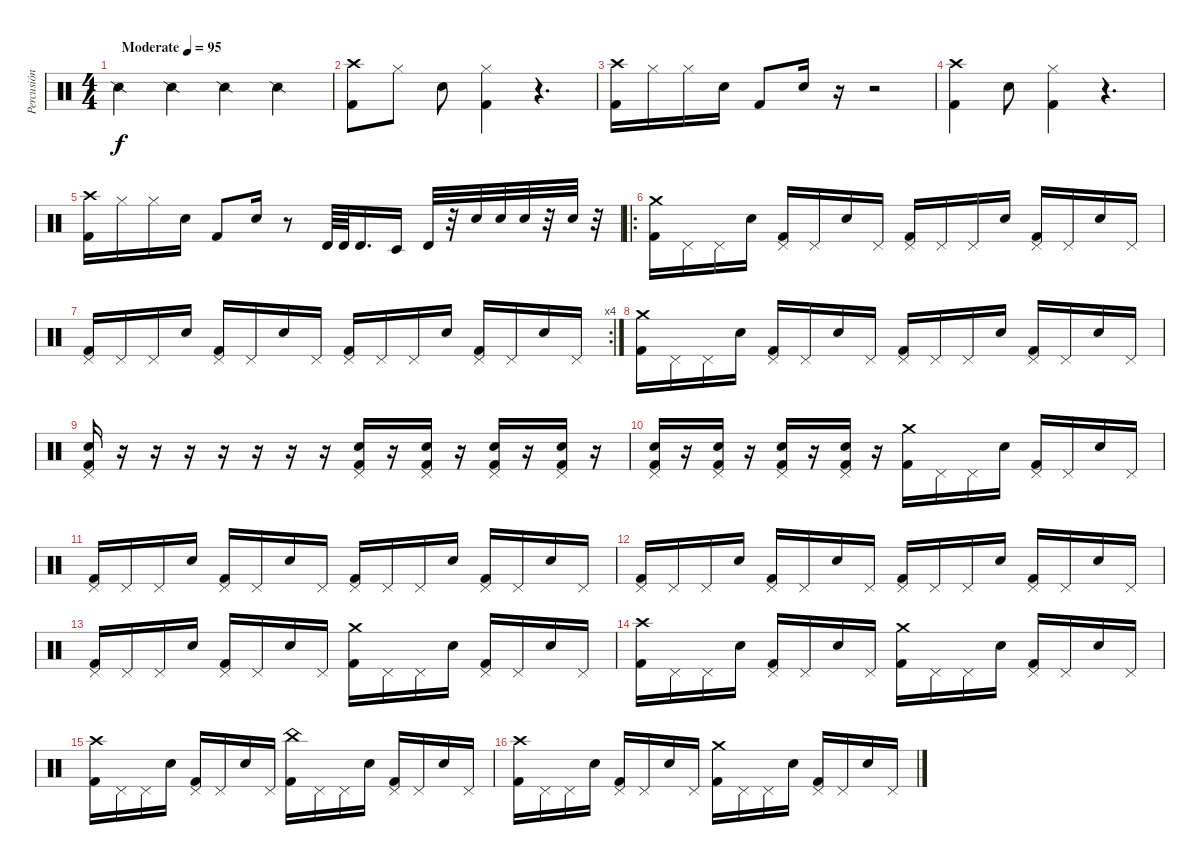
\track ("Percusión" "Percusión") {instrument percussion}
\staff {score}
\articulation defaults
\ts (4 4)
\tempo (95 "Moderate")
\clef neutral
\ks c "Snare (side stick) 2".4{dy f} "Snare (side stick) 2".4 "Snare (side stick) 2".4 "Snare (side stick) 2".4
|
("Crash high (hit)" "Kick (hit) 2").8 "Hi-Hat (closed)".8 "Electric Snare (hit)".8 ("Hi-Hat (closed)" "Kick (hit) 2").4 r.4{d} |
("Crash high (hit)" "Kick (hit) 2").16 "Hi-Hat (closed)".16 "Hi-Hat (closed)".16 "Electric Snare (hit)".16 "Kick (hit) 2".8 "Electric Snare (hit)".16 r.16 r.2 |
("Crash high (hit)" "Kick (hit) 2").4 "Electric Snare (hit)".8 ("Hi-Hat (closed)" "Kick (hit) 2").4 r.4{d} |
("Crash high (hit)" "Kick (hit) 2").16 "Hi-Hat (closed)".16 "Hi-Hat (closed)".16 "Electric Snare (hit)".16 "Kick (hit) 2".8 "Electric Snare (hit)".16 r.8 "Timbale high (hit)".64 "Timbale high (hit)".64 "Timbale high (hit)".16{d} "Timbale low (hit)".16 "Timbale high (hit)".32 r.32 "Electric Snare (hit)".32 "Electric Snare (hit)".32 "Electric Snare (hit)".32 r.32 "Electric Snare (hit)".32 r.32 |
\ro
("Crash medium (hit)" "Kick (hit) 2").16 "Pedal Hi-Hat (hit)".16 "Pedal Hi-Hat (hit)".16 "Electric Snare (hit)".16 ("Pedal Hi-Hat (hit)" "Kick (hit) 2").16 "Pedal Hi-Hat (hit)".16 "Electric Snare (hit)".16 "Pedal Hi-Hat (hit)".16 ("Pedal Hi-Hat (hit)" "Kick (hit) 2").16 "Pedal Hi-Hat (hit)".16 "Pedal Hi-Hat (hit)".16 "Electric Snare (hit)".16 ("Pedal Hi-Hat (hit)" "Kick (hit) 2").16 "Pedal Hi-Hat (hit)".16 "Electric Snare (hit)".16 "Pedal Hi-Hat (hit)".16 |
\rc 4
("Pedal Hi-Hat (hit)" "Kick (hit) 2").16 "Pedal Hi-Hat (hit)".16 "Pedal Hi-Hat (hit)".16 "Electric Snare (hit)".16 ("Pedal Hi-Hat (hit)" "Kick (hit) 2").16 "Pedal Hi-Hat (hit)".16 "Electric Snare (hit)".16 "Pedal Hi-Hat (hit)".16 ("Pedal Hi-Hat (hit)" "Kick (hit) 2").16 "Pedal Hi-Hat (hit)".16 "Pedal Hi-Hat (hit)".16 "Electric Snare (hit)".16 ("Pedal Hi-Hat (hit)" "Kick (hit) 2").16 "Pedal Hi-Hat (hit)".16 "Electric Snare (hit)".16 "Pedal Hi-Hat (hit)".16 |
("Crash medium (hit)" "Kick (hit) 2").16 "Pedal Hi-Hat (hit)".16 "Pedal Hi-Hat (hit)".16 "Electric Snare (hit)".16 ("Pedal Hi-Hat (hit)" "Kick (hit) 2").16 "Pedal Hi-Hat (hit)".16 "Electric Snare (hit)".16 "Pedal Hi-Hat (hit)".16 ("Pedal Hi-Hat (hit)" "Kick (hit) 2").16 "Pedal Hi-Hat (hit)".16 "Pedal Hi-Hat (hit)".16 "Electric Snare (hit)".16 ("Pedal Hi-Hat (hit)" "Kick (hit) 2").16 "Pedal Hi-Hat (hit)".16 "Electric Snare (hit)".16 "Pedal Hi-Hat (hit)".16 |
("Pedal Hi-Hat (hit)" "Electric Snare (hit)" "Kick (hit) 2").16 r.16 r.16 r.16 r.16 r.16 r.16 r.16 ("Pedal Hi-Hat (hit)" "Electric Snare (hit)" "Kick (hit) 2").16 r.16 ("Pedal Hi-Hat (hit)" "Electric Snare (hit)" "Kick (hit) 2").16 r.16 ("Pedal Hi-Hat (hit)" "Electric Snare (hit)" "Kick (hit) 2").16 r.16 ("Pedal Hi-Hat (hit)" "Electric Snare (hit)" "Kick (hit) 2").16 r.16 |
("Pedal Hi-Hat (hit)" "Electric Snare (hit)" "Kick (hit) 2").16 r.16 ("Pedal Hi-Hat (hit)" "Electric Snare (hit)" "Kick (hit) 2").16 r.16 ("Pedal Hi-Hat (hit)" "Electric Snare (hit)" "Kick (hit) 2").16 r.16 ("Pedal Hi-Hat (hit)" "Electric Snare (hit)" "Kick (hit) 2").16 r.16 ("Crash medium (hit)" "Kick (hit) 2").16 "Pedal Hi-Hat (hit)".16 "Pedal Hi-Hat (hit)".16 "Electric Snare (hit)".16 ("Pedal Hi-Hat (hit)" "Kick (hit) 2").16 "Pedal Hi-Hat (hit)".16 "Electric Snare (hit)".16 "Pedal Hi-Hat (hit)".16 |
("Pedal Hi-Hat (hit)" "Kick (hit) 2").16 "Pedal Hi-Hat (hit)".16 "Pedal Hi-Hat (hit)".16 "Electric Snare (hit)".16 ("Pedal Hi-Hat (hit)" "Kick (hit) 2").16 "Pedal Hi-Hat (hit)".16 "Electric Snare (hit)".16 "Pedal Hi-Hat (hit)".16 ("Pedal Hi-Hat (hit)" "Kick (hit) 2").16 "Pedal Hi-Hat (hit)".16 "Pedal Hi-Hat (hit)".16 "Electric Snare (hit)".16 ("Pedal Hi-Hat (hit)" "Kick (hit) 2").16 "Pedal Hi-Hat (hit)".16 "Electric Snare (hit)".16 "Pedal Hi-Hat (hit)".16 |
("Pedal Hi-Hat (hit)" "Kick (hit) 2").16 "Pedal Hi-Hat (hit)".16 "Pedal Hi-Hat (hit)".16 "Electric Snare (hit)".16 ("Pedal Hi-Hat (hit)" "Kick (hit) 2").16 "Pedal Hi-Hat (hit)".16 "Electric Snare (hit)".16 "Pedal Hi-Hat (hit)".16 ("Pedal Hi-Hat (hit)" "Kick (hit) 2").16 "Pedal Hi-Hat (hit)".16 "Pedal Hi-Hat (hit)".16 "Electric Snare (hit)".16 ("Pedal Hi-Hat (hit)" "Kick (hit) 2").16 "Pedal Hi-Hat (hit)".16 "Electric Snare (hit)".16 "Pedal Hi-Hat (hit)".16 |
("Pedal Hi-Hat (hit)" "Kick (hit) 2").16 "Pedal Hi-Hat (hit)".16 "Pedal Hi-Hat (hit)".16 "Electric Snare (hit)".16 ("Pedal Hi-Hat (hit)" "Kick (hit) 2").16 "Pedal Hi-Hat (hit)".16 "Electric Snare (hit)".16 "Pedal Hi-Hat (hit)".16 ("Crash medium (hit)" "Kick (hit) 2").16 "Pedal Hi-Hat (hit)".16 "Pedal Hi-Hat (hit)".16 "Electric Snare (hit)".16 ("Pedal Hi-Hat (hit)" "Kick (hit) 2").16 "Pedal Hi-Hat (hit)".16 "Electric Snare (hit)".16 "Pedal Hi-Hat (hit)".16 |
("Crash high (hit)" "Kick (hit) 2").16 "Pedal Hi-Hat (hit)".16 "Pedal Hi-Hat (hit)".16 "Electric Snare (hit)".16 ("Pedal Hi-Hat (hit)" "Kick (hit) 2").16 "Pedal Hi-Hat (hit)".16 "Electric Snare (hit)".16 "Pedal Hi-Hat (hit)".16 ("Crash medium (hit)" "Kick (hit) 2").16 "Pedal Hi-Hat (hit)".16 "Pedal Hi-Hat (hit)".16 "Electric Snare (hit)".16 ("Pedal Hi-Hat (hit)" "Kick (hit) 2").16 "Pedal Hi-Hat (hit)".16 "Electric Snare (hit)".16 "Pedal Hi-Hat (hit)".16 |
("Crash high (hit)" "Kick (hit) 2").16 "Pedal Hi-Hat (hit)".16 "Pedal Hi-Hat (hit)".16 "Electric Snare (hit)".16 ("Pedal Hi-Hat (hit)" "Kick (hit) 2").16 "Pedal Hi-Hat (hit)".16 "Electric Snare (hit)".16 "Pedal Hi-Hat (hit)".16 ("China (hit)" "Kick (hit) 2").16 "Pedal Hi-Hat (hit)".16 "Pedal Hi-Hat (hit)".16 "Electric Snare (hit)".16 ("Pedal Hi-Hat (hit)" "Kick (hit) 2").16 "Pedal Hi-Hat (hit)".16 "Electric Snare (hit)".16 "Pedal Hi-Hat (hit)".16 |
("Crash high (hit)" "Kick (hit) 2").16 "Pedal Hi-Hat (hit)".16 "Pedal Hi-Hat (hit)".16 "Electric Snare (hit)".16 ("Pedal Hi-Hat (hit)" "Kick (hit) 2").16 "Pedal Hi-Hat (hit)".16 "Electric Snare (hit)".16 "Pedal Hi-Hat (hit)".16 ("Crash medium (hit)" "Kick (hit) 2").16 "Pedal Hi-Hat (hit)".16 "Pedal Hi-Hat (hit)".16 "Electric Snare (hit)".16 ("Pedal Hi-Hat (hit)" "Kick (hit) 2").16 "Pedal Hi-Hat (hit)".16 "Electric Snare (hit)".16 "Pedal Hi-Hat (hit)".16
